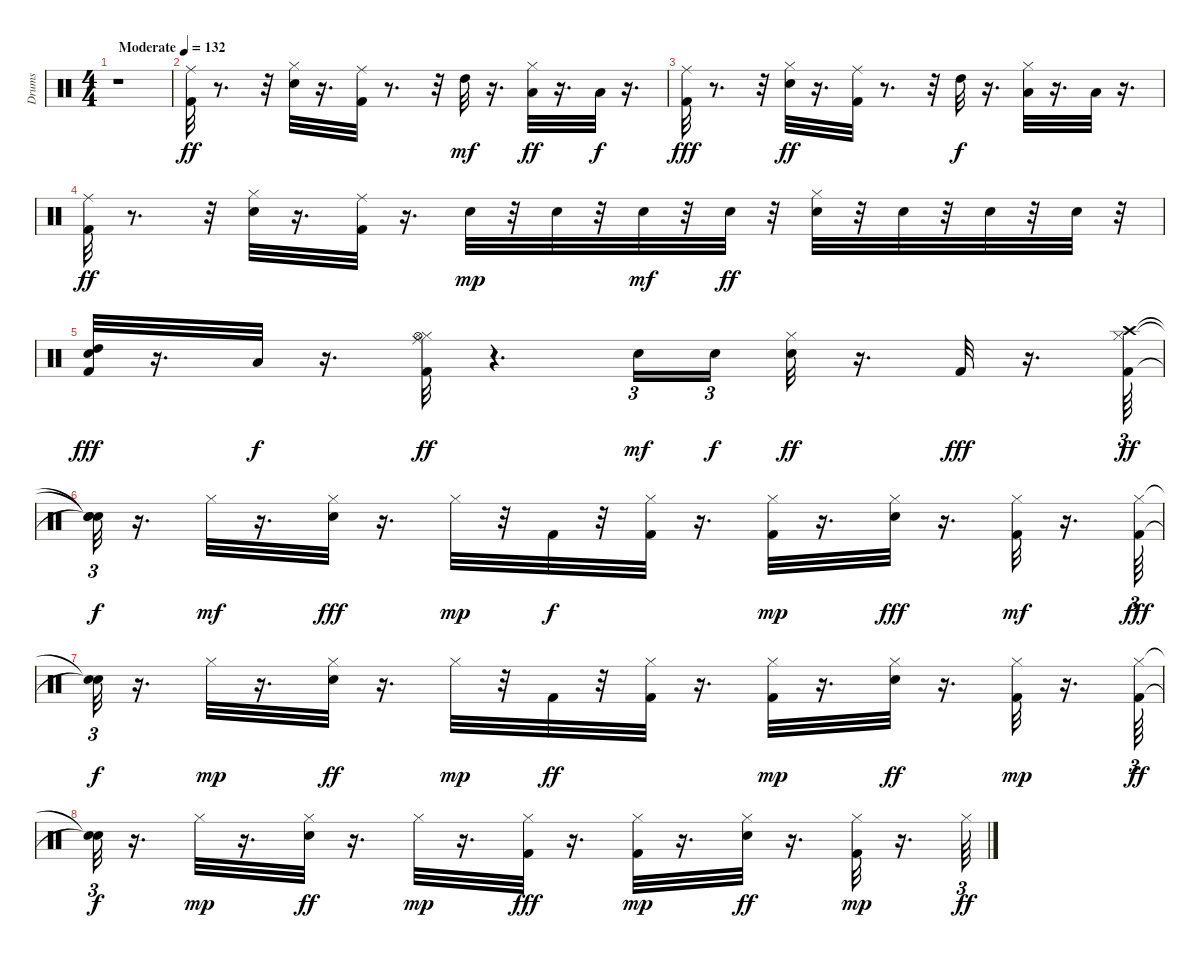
\track ("Drums" "Drums") {instrument percussion}
\staff {score}
\articulation defaults
\ts (4 4)
\tempo (132 "Moderate")
\clef neutral
\ks c
r.1{dy ff} |
("Kick (hit) 2" "Ride (middle)").32 r.8{d} r.32 ("Snare (hit) 2" "Hi-Hat (closed)").32 r.16{d} ("Kick (hit) 2" "Ride (middle)").32 r.8{d} r.32 "High Tom (hit)".32{dy mf} r.16{d} ("Hi-Hat (closed)" "Low Tom (hit)").32{dy ff} r.16{d} "Low Floor Tom (hit)".32{dy f} r.16{d} |
("Kick (hit) 2" "Ride (middle)").32{dy fff} r.8{d} r.32 ("Snare (hit) 2" "Hi-Hat (closed)").32{dy ff} r.16{d} ("Kick (hit) 2" "Ride (middle)").32 r.8{d} r.32 "High Tom (hit)".32{dy f} r.16{d} ("Hi-Hat (closed)" "Low Tom (hit)").32 r.16{d} "Low Floor Tom (hit)".32 r.16{d} |
("Kick (hit) 2" "Ride (middle)").32{dy ff} r.8{d} r.32 ("Snare (hit) 2" "Hi-Hat (closed)").32 r.16{d} ("Kick (hit) 2" "Ride (middle)").32 r.16{d} "Snare (hit) 2".32{dy mp} r.32 "Snare (hit) 2".32 r.32 "Snare (hit) 2".32{dy mf} r.32 "Snare (hit) 2".32{dy ff} r.32 ("Snare (hit) 2" "Hi-Hat (closed)").32 r.32 "Snare (hit) 2".32 r.32 "Snare (hit) 2".32 r.32 "Snare (hit) 2".32 r.32 |
("Kick (hit) 2" "Snare (hit) 2" "High Tom (hit)").32{dy fff} r.16{d} "Low Floor Tom (hit)".32{dy f} r.16{d} ("Kick (hit) 2" "Hi-Hat (closed)" "Ride (middle)" "Hi-Hat (open)").32{dy ff} r.4{d} "Snare (hit) 2".16{tu (3 2) dy mf} "Snare (hit) 2".16{tu (3 2) dy f beam splitsecondary} ("Snare (hit) 2" "Hi-Hat (closed)").32{dy ff} r.16{d} "Kick (hit) 2".32{dy fff} r.16{d} ("Kick (hit) 2" "Hi-Hat (closed)" "Crash high (hit)").64{tu (3 2) dy ff} |
("Snare (hit)"{t} "Snare (hit)"{t} "Snare (hit)"{t}).32{tu (3 2) dy f} r.16{d} "Hi-Hat (closed)".32{dy mf} r.16{d} ("Snare (hit) 2" "Hi-Hat (closed)").32{dy fff} r.16{d} "Hi-Hat (closed)".32{dy mp} r.32 "Kick (hit) 2".32{dy f} r.32 ("Kick (hit) 2" "Hi-Hat (closed)").32 r.16{d} ("Kick (hit) 2" "Hi-Hat (closed)").32{dy mp} r.16{d} ("Snare (hit) 2" "Hi-Hat (closed)").32{dy fff} r.16{d} ("Kick (hit) 2" "Hi-Hat (closed)").32{dy mf} r.16{d} ("Kick (hit) 2" "Hi-Hat (closed)").64{tu (3 2) dy fff} |
("Snare (hit)"{t} "Snare (hit)"{t}).32{tu (3 2) dy f} r.16{d} "Hi-Hat (closed)".32{dy mp} r.16{d} ("Snare (hit) 2" "Hi-Hat (closed)").32{dy ff} r.16{d} "Hi-Hat (closed)".32{dy mp} r.32 "Kick (hit) 2".32{dy ff} r.32 ("Kick (hit) 2" "Hi-Hat (closed)").32 r.16{d} ("Kick (hit) 2" "Hi-Hat (closed)").32{dy mp} r.16{d} ("Snare (hit) 2" "Hi-Hat (closed)").32{dy ff} r.16{d} ("Kick (hit) 2" "Hi-Hat (closed)").32{dy mp} r.16{d} ("Kick (hit) 2" "Hi-Hat (closed)").64{tu (3 2) dy ff} |
("Snare (hit)"{t} "Snare (hit)"{t}).32{tu (3 2) dy f} r.16{d} "Hi-Hat (closed)".32{dy mp} r.16{d} ("Snare (hit) 2" "Hi-Hat (closed)").32{dy ff} r.16{d} "Hi-Hat (closed)".32{dy mp} r.16{d} ("Kick (hit) 2" "Hi-Hat (closed)").32{dy fff} r.16{d} ("Kick (hit) 2" "Hi-Hat (closed)").32{dy mp} r.16{d} ("Snare (hit) 2" "Hi-Hat (closed)").32{dy ff} r.16{d} ("Kick (hit) 2" "Hi-Hat (closed)").32{dy mp} r.16{d} "Hi-Hat (closed)".64{tu (3 2) dy ff}
